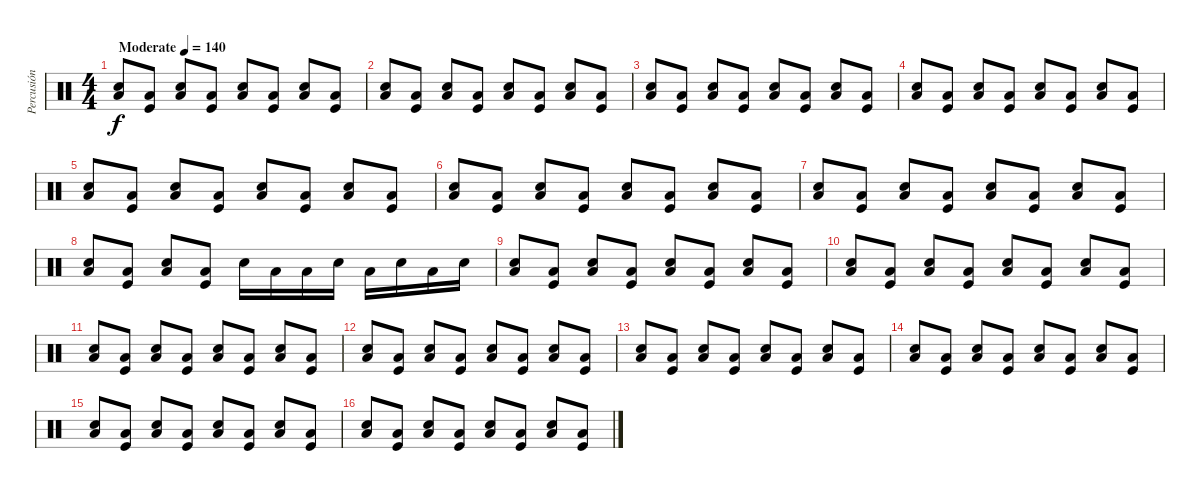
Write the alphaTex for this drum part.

\track ("Percusión" "Percusión") {instrument percussion}
\staff {score}
\articulation defaults
\ts (4 4)
\tempo (140 "Moderate")
\clef neutral
\ks c
("Low Floor Tom (hit)" "Snare (hit) 2").8{dy f} ("Low Floor Tom (hit)" "Kick (hit)").8 ("Low Floor Tom (hit)" "Snare (hit) 2").8 ("Low Floor Tom (hit)" "Kick (hit)").8 ("Low Floor Tom (hit)" "Snare (hit) 2").8 ("Low Floor Tom (hit)" "Kick (hit)").8 ("Low Floor Tom (hit)" "Snare (hit) 2").8 ("Low Floor Tom (hit)" "Kick (hit)").8 |
("Low Floor Tom (hit)" "Snare (hit) 2").8 ("Low Floor Tom (hit)" "Kick (hit)").8 ("Low Floor Tom (hit)" "Snare (hit) 2").8 ("Low Floor Tom (hit)" "Kick (hit)").8 ("Low Floor Tom (hit)" "Snare (hit) 2").8 ("Low Floor Tom (hit)" "Kick (hit)").8 ("Low Floor Tom (hit)" "Snare (hit) 2").8 ("Low Floor Tom (hit)" "Kick (hit)").8 |
("Low Floor Tom (hit)" "Snare (hit) 2").8 ("Low Floor Tom (hit)" "Kick (hit)").8 ("Low Floor Tom (hit)" "Snare (hit) 2").8 ("Low Floor Tom (hit)" "Kick (hit)").8 ("Low Floor Tom (hit)" "Snare (hit) 2").8 ("Low Floor Tom (hit)" "Kick (hit)").8 ("Low Floor Tom (hit)" "Snare (hit) 2").8 ("Low Floor Tom (hit)" "Kick (hit)").8 |
("Low Floor Tom (hit)" "Snare (hit) 2").8 ("Low Floor Tom (hit)" "Kick (hit)").8 ("Low Floor Tom (hit)" "Snare (hit) 2").8 ("Low Floor Tom (hit)" "Kick (hit)").8 ("Low Floor Tom (hit)" "Snare (hit) 2").8 ("Low Floor Tom (hit)" "Kick (hit)").8 ("Low Floor Tom (hit)" "Snare (hit) 2").8 ("Low Floor Tom (hit)" "Kick (hit)").8 |
("Low Floor Tom (hit)" "Snare (hit) 2").8 ("Low Floor Tom (hit)" "Kick (hit)").8 ("Low Floor Tom (hit)" "Snare (hit) 2").8 ("Low Floor Tom (hit)" "Kick (hit)").8 ("Low Floor Tom (hit)" "Snare (hit) 2").8 ("Low Floor Tom (hit)" "Kick (hit)").8 ("Low Floor Tom (hit)" "Snare (hit) 2").8 ("Low Floor Tom (hit)" "Kick (hit)").8 |
("Low Floor Tom (hit)" "Snare (hit) 2").8 ("Low Floor Tom (hit)" "Kick (hit)").8 ("Low Floor Tom (hit)" "Snare (hit) 2").8 ("Low Floor Tom (hit)" "Kick (hit)").8 ("Low Floor Tom (hit)" "Snare (hit) 2").8 ("Low Floor Tom (hit)" "Kick (hit)").8 ("Low Floor Tom (hit)" "Snare (hit) 2").8 ("Low Floor Tom (hit)" "Kick (hit)").8 |
("Low Floor Tom (hit)" "Snare (hit) 2").8 ("Low Floor Tom (hit)" "Kick (hit)").8 ("Low Floor Tom (hit)" "Snare (hit) 2").8 ("Low Floor Tom (hit)" "Kick (hit)").8 ("Low Floor Tom (hit)" "Snare (hit) 2").8 ("Low Floor Tom (hit)" "Kick (hit)").8 ("Low Floor Tom (hit)" "Snare (hit) 2").8 ("Low Floor Tom (hit)" "Kick (hit)").8 |
("Low Floor Tom (hit)" "Snare (hit) 2").8 ("Low Floor Tom (hit)" "Kick (hit)").8 ("Low Floor Tom (hit)" "Snare (hit) 2").8 ("Low Floor Tom (hit)" "Kick (hit)").8 "Snare (hit) 2".16 "Low Floor Tom (hit)".16 "Low Floor Tom (hit)".16 "Snare (hit) 2".16 "Low Floor Tom (hit)".16 "Snare (hit) 2".16 "Low Floor Tom (hit)".16 "Snare (hit) 2".16 |
("Low Floor Tom (hit)" "Snare (hit) 2").8 ("Low Floor Tom (hit)" "Kick (hit)").8 ("Low Floor Tom (hit)" "Snare (hit) 2").8 ("Low Floor Tom (hit)" "Kick (hit)").8 ("Low Floor Tom (hit)" "Snare (hit) 2").8 ("Low Floor Tom (hit)" "Kick (hit)").8 ("Low Floor Tom (hit)" "Snare (hit) 2").8 ("Low Floor Tom (hit)" "Kick (hit)").8 |
("Low Floor Tom (hit)" "Snare (hit) 2").8 ("Low Floor Tom (hit)" "Kick (hit)").8 ("Low Floor Tom (hit)" "Snare (hit) 2").8 ("Low Floor Tom (hit)" "Kick (hit)").8 ("Low Floor Tom (hit)" "Snare (hit) 2").8 ("Low Floor Tom (hit)" "Kick (hit)").8 ("Low Floor Tom (hit)" "Snare (hit) 2").8 ("Low Floor Tom (hit)" "Kick (hit)").8 |
("Low Floor Tom (hit)" "Snare (hit) 2").8 ("Low Floor Tom (hit)" "Kick (hit)").8 ("Low Floor Tom (hit)" "Snare (hit) 2").8 ("Low Floor Tom (hit)" "Kick (hit)").8 ("Low Floor Tom (hit)" "Snare (hit) 2").8 ("Low Floor Tom (hit)" "Kick (hit)").8 ("Low Floor Tom (hit)" "Snare (hit) 2").8 ("Low Floor Tom (hit)" "Kick (hit)").8 |
("Low Floor Tom (hit)" "Snare (hit) 2").8 ("Low Floor Tom (hit)" "Kick (hit)").8 ("Low Floor Tom (hit)" "Snare (hit) 2").8 ("Low Floor Tom (hit)" "Kick (hit)").8 ("Low Floor Tom (hit)" "Snare (hit) 2").8 ("Low Floor Tom (hit)" "Kick (hit)").8 ("Low Floor Tom (hit)" "Snare (hit) 2").8 ("Low Floor Tom (hit)" "Kick (hit)").8 |
("Low Floor Tom (hit)" "Snare (hit) 2").8 ("Low Floor Tom (hit)" "Kick (hit)").8 ("Low Floor Tom (hit)" "Snare (hit) 2").8 ("Low Floor Tom (hit)" "Kick (hit)").8 ("Low Floor Tom (hit)" "Snare (hit) 2").8 ("Low Floor Tom (hit)" "Kick (hit)").8 ("Low Floor Tom (hit)" "Snare (hit) 2").8 ("Low Floor Tom (hit)" "Kick (hit)").8 |
("Low Floor Tom (hit)" "Snare (hit) 2").8 ("Low Floor Tom (hit)" "Kick (hit)").8 ("Low Floor Tom (hit)" "Snare (hit) 2").8 ("Low Floor Tom (hit)" "Kick (hit)").8 ("Low Floor Tom (hit)" "Snare (hit) 2").8 ("Low Floor Tom (hit)" "Kick (hit)").8 ("Low Floor Tom (hit)" "Snare (hit) 2").8 ("Low Floor Tom (hit)" "Kick (hit)").8 |
("Low Floor Tom (hit)" "Snare (hit) 2").8 ("Low Floor Tom (hit)" "Kick (hit)").8 ("Low Floor Tom (hit)" "Snare (hit) 2").8 ("Low Floor Tom (hit)" "Kick (hit)").8 ("Low Floor Tom (hit)" "Snare (hit) 2").8 ("Low Floor Tom (hit)" "Kick (hit)").8 ("Low Floor Tom (hit)" "Snare (hit) 2").8 ("Low Floor Tom (hit)" "Kick (hit)").8 |
("Low Floor Tom (hit)" "Snare (hit) 2").8 ("Low Floor Tom (hit)" "Kick (hit)").8 ("Low Floor Tom (hit)" "Snare (hit) 2").8 ("Low Floor Tom (hit)" "Kick (hit)").8 ("Low Floor Tom (hit)" "Snare (hit) 2").8 ("Low Floor Tom (hit)" "Kick (hit)").8 ("Low Floor Tom (hit)" "Snare (hit) 2").8 ("Low Floor Tom (hit)" "Kick (hit)").8
